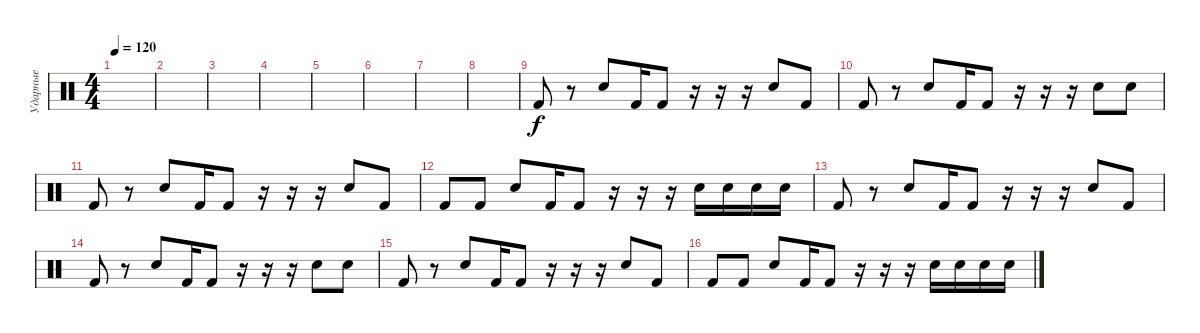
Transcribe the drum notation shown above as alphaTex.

\track ("Ударные" "Ударные") {instrument percussion}
\staff {score}
\articulation defaults
\ts (4 4)
\tempo 120
\clef neutral
\ks c
|
|
|
|
|
|
|
|
"Kick (hit) 2".8 r.8 "Electric Snare (hit)".8 "Kick (hit) 2".16 "Kick (hit) 2".8 r.16 r.16 r.16 "Electric Snare (hit)".8 "Kick (hit) 2".8 |
"Kick (hit) 2".8 r.8 "Electric Snare (hit)".8 "Kick (hit) 2".16 "Kick (hit) 2".8 r.16 r.16 r.16 "Electric Snare (hit)".8 "Electric Snare (hit)".8 |
"Kick (hit) 2".8 r.8 "Electric Snare (hit)".8 "Kick (hit) 2".16 "Kick (hit) 2".8 r.16 r.16 r.16 "Electric Snare (hit)".8 "Kick (hit) 2".8 |
"Kick (hit) 2".8 "Kick (hit) 2".8 "Electric Snare (hit)".8 "Kick (hit) 2".16 "Kick (hit) 2".8 r.16 r.16 r.16 "Electric Snare (hit)".16 "Electric Snare (hit)".16 "Electric Snare (hit)".16 "Electric Snare (hit)".16 |
"Kick (hit) 2".8 r.8 "Electric Snare (hit)".8 "Kick (hit) 2".16 "Kick (hit) 2".8 r.16 r.16 r.16 "Electric Snare (hit)".8 "Kick (hit) 2".8 |
"Kick (hit) 2".8 r.8 "Electric Snare (hit)".8 "Kick (hit) 2".16 "Kick (hit) 2".8 r.16 r.16 r.16 "Electric Snare (hit)".8 "Electric Snare (hit)".8 |
"Kick (hit) 2".8 r.8 "Electric Snare (hit)".8 "Kick (hit) 2".16 "Kick (hit) 2".8 r.16 r.16 r.16 "Electric Snare (hit)".8 "Kick (hit) 2".8 |
"Kick (hit) 2".8 "Kick (hit) 2".8 "Electric Snare (hit)".8 "Kick (hit) 2".16 "Kick (hit) 2".8 r.16 r.16 r.16 "Electric Snare (hit)".16 "Electric Snare (hit)".16 "Electric Snare (hit)".16 "Electric Snare (hit)".16
